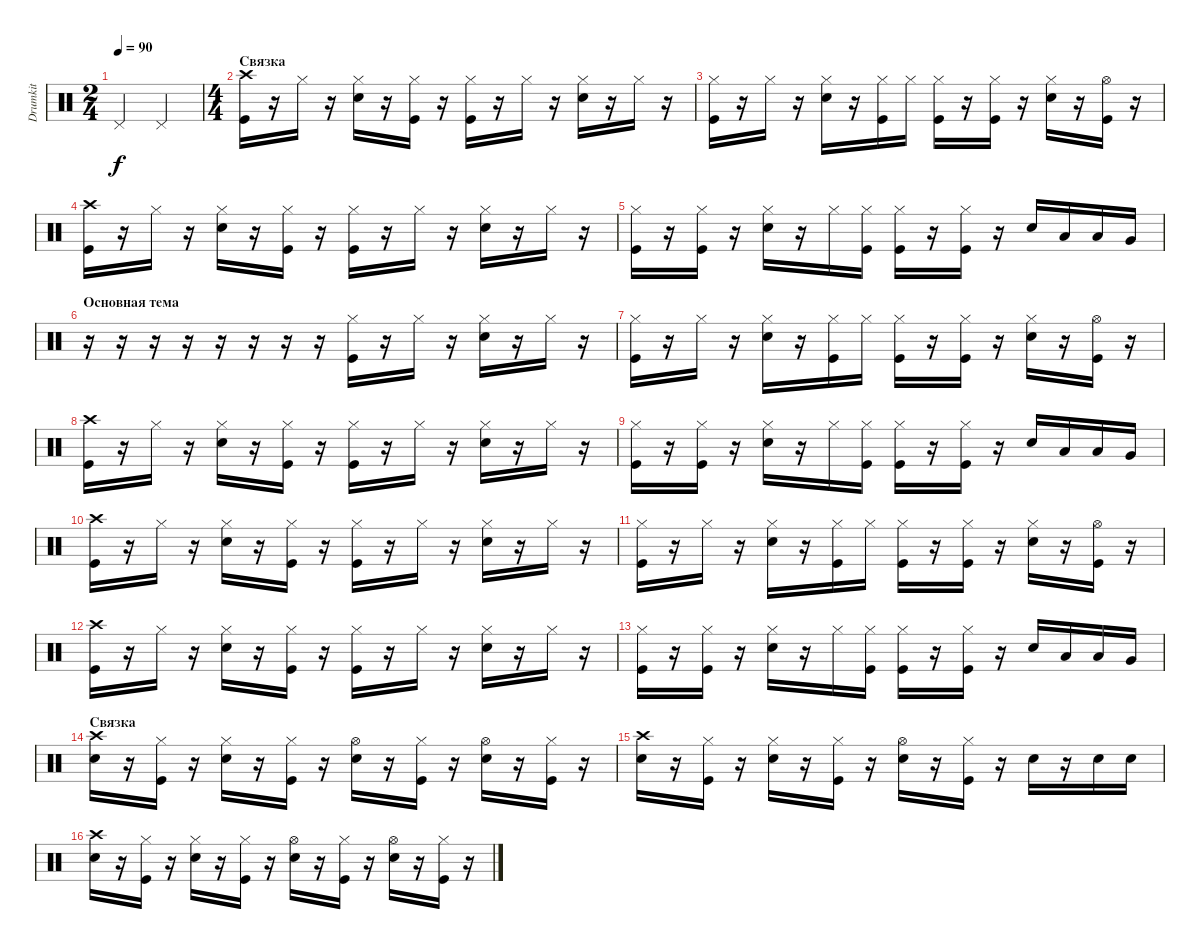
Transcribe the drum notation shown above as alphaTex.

\track ("Drumkit" "Drumkit") {instrument percussion}
\staff {score}
\articulation defaults
\ts (2 4)
\tempo 90
\clef neutral
\ks c "Pedal Hi-Hat (hit)".4{dy f} "Pedal Hi-Hat (hit)".4
|
\ts (4 4)
\section ("" "Связка")
("Kick (hit)" "Crash high (hit)").16 r.16 "Hi-Hat (closed)".16 r.16 ("Hi-Hat (closed)" "Snare (hit) 2").16 r.16 ("Hi-Hat (closed)" "Kick (hit)").16 r.16 ("Hi-Hat (closed)" "Kick (hit)").16 r.16 "Hi-Hat (closed)".16 r.16 ("Hi-Hat (closed)" "Snare (hit) 2").16 r.16 "Hi-Hat (closed)".16 r.16 |
("Hi-Hat (closed)" "Kick (hit)").16 r.16 "Hi-Hat (closed)".16 r.16 ("Hi-Hat (closed)" "Snare (hit) 2").16 r.16 ("Hi-Hat (closed)" "Kick (hit)").16 "Hi-Hat (closed)".16 ("Hi-Hat (closed)" "Kick (hit)").16 r.16 ("Hi-Hat (closed)" "Kick (hit)").16 r.16 ("Hi-Hat (closed)" "Snare (hit) 2").16 r.16 ("Hi-Hat (open)" "Kick (hit)").16 r.16 |
("Kick (hit)" "Crash high (hit)").16 r.16 "Hi-Hat (closed)".16 r.16 ("Hi-Hat (closed)" "Snare (hit) 2").16 r.16 ("Hi-Hat (closed)" "Kick (hit)").16 r.16 ("Hi-Hat (closed)" "Kick (hit)").16 r.16 "Hi-Hat (closed)".16 r.16 ("Hi-Hat (closed)" "Snare (hit) 2").16 r.16 "Hi-Hat (closed)".16 r.16 |
("Hi-Hat (closed)" "Kick (hit)").16 r.16 ("Hi-Hat (closed)" "Kick (hit)").16 r.16 ("Hi-Hat (closed)" "Snare (hit) 2").16 r.16 "Hi-Hat (closed)".16 ("Kick (hit)" "Hi-Hat (closed)").16 ("Hi-Hat (closed)" "Kick (hit)").16 r.16 ("Hi-Hat (closed)" "Kick (hit)").16 r.16 "Snare (hit) 2".16 "Low Tom (hit)".16 "Low Floor Tom (hit)".16 "Very Low Tom (hit)".16 |
\section ("" "Основная тема")
r.16 r.16 r.16 r.16 r.16 r.16 r.16 r.16 ("Hi-Hat (closed)" "Kick (hit)").16 r.16 "Hi-Hat (closed)".16 r.16 ("Hi-Hat (closed)" "Snare (hit) 2").16 r.16 "Hi-Hat (closed)".16 r.16 |
("Hi-Hat (closed)" "Kick (hit)").16 r.16 "Hi-Hat (closed)".16 r.16 ("Hi-Hat (closed)" "Snare (hit) 2").16 r.16 ("Hi-Hat (closed)" "Kick (hit)").16 "Hi-Hat (closed)".16 ("Hi-Hat (closed)" "Kick (hit)").16 r.16 ("Hi-Hat (closed)" "Kick (hit)").16 r.16 ("Hi-Hat (closed)" "Snare (hit) 2").16 r.16 ("Hi-Hat (open)" "Kick (hit)").16 r.16 |
("Kick (hit)" "Crash high (hit)").16 r.16 "Hi-Hat (closed)".16 r.16 ("Hi-Hat (closed)" "Snare (hit) 2").16 r.16 ("Hi-Hat (closed)" "Kick (hit)").16 r.16 ("Hi-Hat (closed)" "Kick (hit)").16 r.16 "Hi-Hat (closed)".16 r.16 ("Hi-Hat (closed)" "Snare (hit) 2").16 r.16 "Hi-Hat (closed)".16 r.16 |
("Hi-Hat (closed)" "Kick (hit)").16 r.16 ("Hi-Hat (closed)" "Kick (hit)").16 r.16 ("Hi-Hat (closed)" "Snare (hit) 2").16 r.16 "Hi-Hat (closed)".16 ("Kick (hit)" "Hi-Hat (closed)").16 ("Hi-Hat (closed)" "Kick (hit)").16 r.16 ("Hi-Hat (closed)" "Kick (hit)").16 r.16 "Snare (hit) 2".16 "Low Tom (hit)".16 "Low Floor Tom (hit)".16 "Very Low Tom (hit)".16 |
("Kick (hit)" "Crash high (hit)").16 r.16 "Hi-Hat (closed)".16 r.16 ("Hi-Hat (closed)" "Snare (hit) 2").16 r.16 ("Hi-Hat (closed)" "Kick (hit)").16 r.16 ("Hi-Hat (closed)" "Kick (hit)").16 r.16 "Hi-Hat (closed)".16 r.16 ("Hi-Hat (closed)" "Snare (hit) 2").16 r.16 "Hi-Hat (closed)".16 r.16 |
("Hi-Hat (closed)" "Kick (hit)").16 r.16 "Hi-Hat (closed)".16 r.16 ("Hi-Hat (closed)" "Snare (hit) 2").16 r.16 ("Hi-Hat (closed)" "Kick (hit)").16 "Hi-Hat (closed)".16 ("Hi-Hat (closed)" "Kick (hit)").16 r.16 ("Hi-Hat (closed)" "Kick (hit)").16 r.16 ("Hi-Hat (closed)" "Snare (hit) 2").16 r.16 ("Hi-Hat (open)" "Kick (hit)").16 r.16 |
("Kick (hit)" "Crash high (hit)").16 r.16 "Hi-Hat (closed)".16 r.16 ("Hi-Hat (closed)" "Snare (hit) 2").16 r.16 ("Hi-Hat (closed)" "Kick (hit)").16 r.16 ("Hi-Hat (closed)" "Kick (hit)").16 r.16 "Hi-Hat (closed)".16 r.16 ("Hi-Hat (closed)" "Snare (hit) 2").16 r.16 "Hi-Hat (closed)".16 r.16 |
("Hi-Hat (closed)" "Kick (hit)").16 r.16 ("Hi-Hat (closed)" "Kick (hit)").16 r.16 ("Hi-Hat (closed)" "Snare (hit) 2").16 r.16 "Hi-Hat (closed)".16 ("Kick (hit)" "Hi-Hat (closed)").16 ("Hi-Hat (closed)" "Kick (hit)").16 r.16 ("Hi-Hat (closed)" "Kick (hit)").16 r.16 "Snare (hit) 2".16 "Low Tom (hit)".16 "Low Floor Tom (hit)".16 "Very Low Tom (hit)".16 |
\section ("" "Связка")
("Crash high (hit)" "Snare (hit) 2").16 r.16 ("Hi-Hat (closed)" "Kick (hit)").16 r.16 ("Hi-Hat (closed)" "Snare (hit) 2").16 r.16 ("Hi-Hat (closed)" "Kick (hit)").16 r.16 ("Hi-Hat (open)" "Snare (hit) 2").16 r.16 ("Hi-Hat (closed)" "Kick (hit)").16 r.16 ("Hi-Hat (open)" "Snare (hit) 2").16 r.16 ("Hi-Hat (closed)" "Kick (hit)").16 r.16 |
("Crash high (hit)" "Snare (hit) 2").16 r.16 ("Hi-Hat (closed)" "Kick (hit)").16 r.16 ("Hi-Hat (closed)" "Snare (hit) 2").16 r.16 ("Hi-Hat (closed)" "Kick (hit)").16 r.16 ("Hi-Hat (open)" "Snare (hit) 2").16 r.16 ("Hi-Hat (closed)" "Kick (hit)").16 r.16 "Snare (hit) 2".16 r.16 "Snare (hit) 2".16 "Snare (hit) 2".16 |
("Crash high (hit)" "Snare (hit) 2").16 r.16 ("Hi-Hat (closed)" "Kick (hit)").16 r.16 ("Hi-Hat (closed)" "Snare (hit) 2").16 r.16 ("Hi-Hat (closed)" "Kick (hit)").16 r.16 ("Hi-Hat (open)" "Snare (hit) 2").16 r.16 ("Hi-Hat (closed)" "Kick (hit)").16 r.16 ("Hi-Hat (open)" "Snare (hit) 2").16 r.16 ("Hi-Hat (closed)" "Kick (hit)").16 r.16
